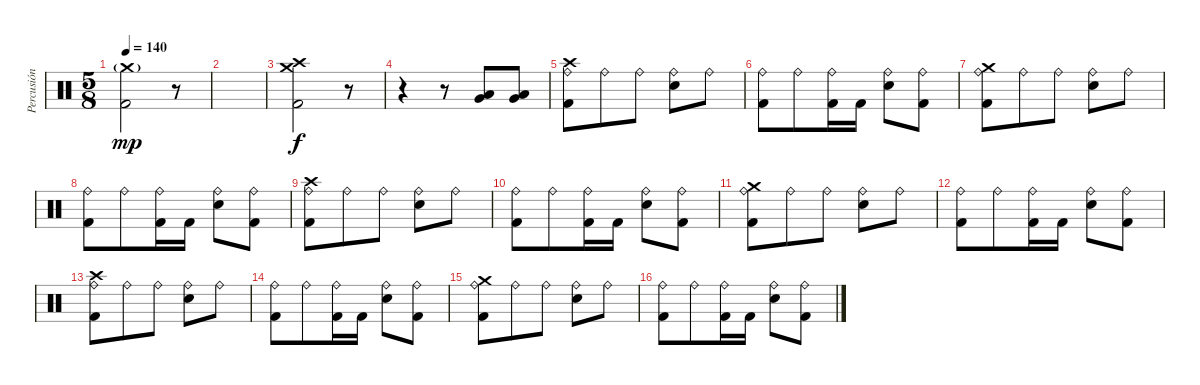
\track ("Percusión" "Percusión") {instrument percussion}
\staff {score}
\articulation defaults
\ts (5 8)
\tempo 140
\clef neutral
\ks c
("Crash medium (hit)"{g} "Kick (hit) 2").2{dy mp} r.8 |
|
("Crash medium (hit)" "Crash high (hit)" "Kick (hit) 2").2{dy f} r.8 |
r.4 r.8 ("Very Low Tom (hit)" "Low Tom (hit)").8 ("Very Low Tom (hit)" "Low Tom (hit)").8 |
("Ride (bell)" "Crash high (hit)" "Kick (hit) 2").8 "Ride (bell)".8 "Ride (bell)".8 ("Ride (bell)" "Electric Snare (hit)").8 "Ride (bell)".8 |
("Ride (bell)" "Kick (hit) 2").8 "Ride (bell)".8 ("Ride (bell)" "Kick (hit) 2").16 "Kick (hit) 2".16 ("Ride (bell)" "Electric Snare (hit)").8 ("Ride (bell)" "Kick (hit) 2").8 |
("Ride (bell)" "Crash medium (hit)" "Kick (hit) 2").8 "Ride (bell)".8 "Ride (bell)".8 ("Ride (bell)" "Electric Snare (hit)").8 "Ride (bell)".8 |
("Ride (bell)" "Kick (hit) 2").8 "Ride (bell)".8 ("Ride (bell)" "Kick (hit) 2").16 "Kick (hit) 2".16 ("Ride (bell)" "Electric Snare (hit)").8 ("Ride (bell)" "Kick (hit) 2").8 |
("Ride (bell)" "Crash high (hit)" "Kick (hit) 2").8 "Ride (bell)".8 "Ride (bell)".8 ("Ride (bell)" "Electric Snare (hit)").8 "Ride (bell)".8 |
("Ride (bell)" "Kick (hit) 2").8 "Ride (bell)".8 ("Ride (bell)" "Kick (hit) 2").16 "Kick (hit) 2".16 ("Ride (bell)" "Electric Snare (hit)").8 ("Ride (bell)" "Kick (hit) 2").8 |
("Ride (bell)" "Crash medium (hit)" "Kick (hit) 2").8 "Ride (bell)".8 "Ride (bell)".8 ("Ride (bell)" "Electric Snare (hit)").8 "Ride (bell)".8 |
("Ride (bell)" "Kick (hit) 2").8 "Ride (bell)".8 ("Ride (bell)" "Kick (hit) 2").16 "Kick (hit) 2".16 ("Ride (bell)" "Electric Snare (hit)").8 ("Ride (bell)" "Kick (hit) 2").8 |
("Ride (bell)" "Crash high (hit)" "Kick (hit) 2").8 "Ride (bell)".8 "Ride (bell)".8 ("Ride (bell)" "Electric Snare (hit)").8 "Ride (bell)".8 |
("Ride (bell)" "Kick (hit) 2").8 "Ride (bell)".8 ("Ride (bell)" "Kick (hit) 2").16 "Kick (hit) 2".16 ("Ride (bell)" "Electric Snare (hit)").8 ("Ride (bell)" "Kick (hit) 2").8 |
("Ride (bell)" "Crash medium (hit)" "Kick (hit) 2").8 "Ride (bell)".8 "Ride (bell)".8 ("Ride (bell)" "Electric Snare (hit)").8 "Ride (bell)".8 |
("Ride (bell)" "Kick (hit) 2").8 "Ride (bell)".8 ("Ride (bell)" "Kick (hit) 2").16 "Kick (hit) 2".16 ("Ride (bell)" "Electric Snare (hit)").8 ("Ride (bell)" "Kick (hit) 2").8
